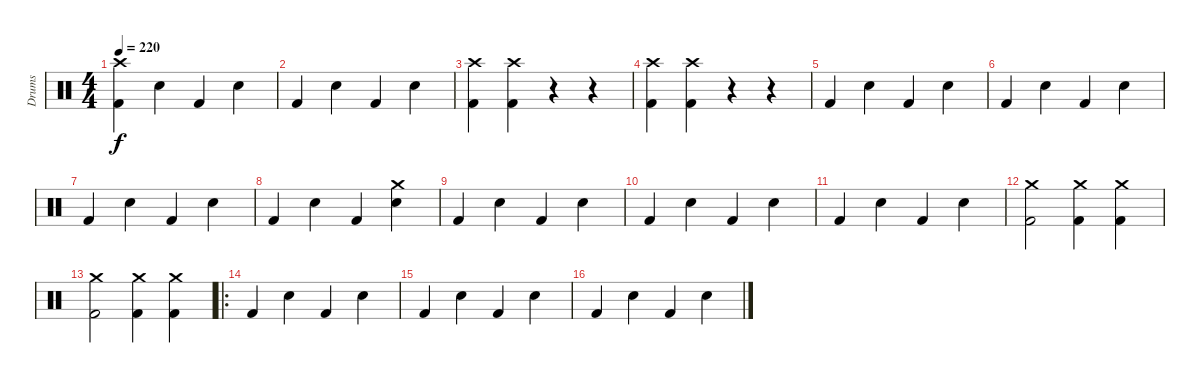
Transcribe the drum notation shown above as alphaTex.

\track ("Drums" "Drums") {instrument percussion}
\staff {score}
\articulation defaults
\ts (4 4)
\tempo 220
\clef neutral
\ks c
("Crash high (hit)" "Kick (hit) 2").4{dy f} "Electric Snare (hit)".4 "Kick (hit) 2".4 "Electric Snare (hit)".4 |
"Kick (hit) 2".4 "Electric Snare (hit)".4 "Kick (hit) 2".4 "Electric Snare (hit)".4 |
("Crash high (hit)" "Kick (hit) 2").4 ("Crash high (hit)" "Kick (hit) 2").4 r.4 r.4 |
("Crash high (hit)" "Kick (hit) 2").4 ("Crash high (hit)" "Kick (hit) 2").4 r.4 r.4 |
"Kick (hit) 2".4 "Electric Snare (hit)".4 "Kick (hit) 2".4 "Electric Snare (hit)".4 |
"Kick (hit) 2".4 "Electric Snare (hit)".4 "Kick (hit) 2".4 "Electric Snare (hit)".4 |
"Kick (hit) 2".4 "Electric Snare (hit)".4 "Kick (hit) 2".4 "Electric Snare (hit)".4 |
"Kick (hit) 2".4 "Electric Snare (hit)".4 "Kick (hit) 2".4 ("Crash medium (hit)" "Snare (hit) 2").4 |
"Kick (hit) 2".4 "Electric Snare (hit)".4 "Kick (hit) 2".4 "Electric Snare (hit)".4 |
"Kick (hit) 2".4 "Electric Snare (hit)".4 "Kick (hit) 2".4 "Electric Snare (hit)".4 |
"Kick (hit) 2".4 "Electric Snare (hit)".4 "Kick (hit) 2".4 "Electric Snare (hit)".4 |
("Crash medium (hit)" "Kick (hit) 2").2 ("Crash medium (hit)" "Kick (hit) 2").4 ("Kick (hit) 2" "Crash medium (hit)").4 |
("Crash medium (hit)" "Kick (hit) 2").2 ("Crash medium (hit)" "Kick (hit) 2").4 ("Kick (hit) 2" "Crash medium (hit)").4 |
\ro "Kick (hit) 2".4 "Electric Snare (hit)".4 "Kick (hit) 2".4 "Electric Snare (hit)".4
|
"Kick (hit) 2".4 "Electric Snare (hit)".4 "Kick (hit) 2".4 "Electric Snare (hit)".4 |
"Kick (hit) 2".4 "Electric Snare (hit)".4 "Kick (hit) 2".4 "Electric Snare (hit)".4
